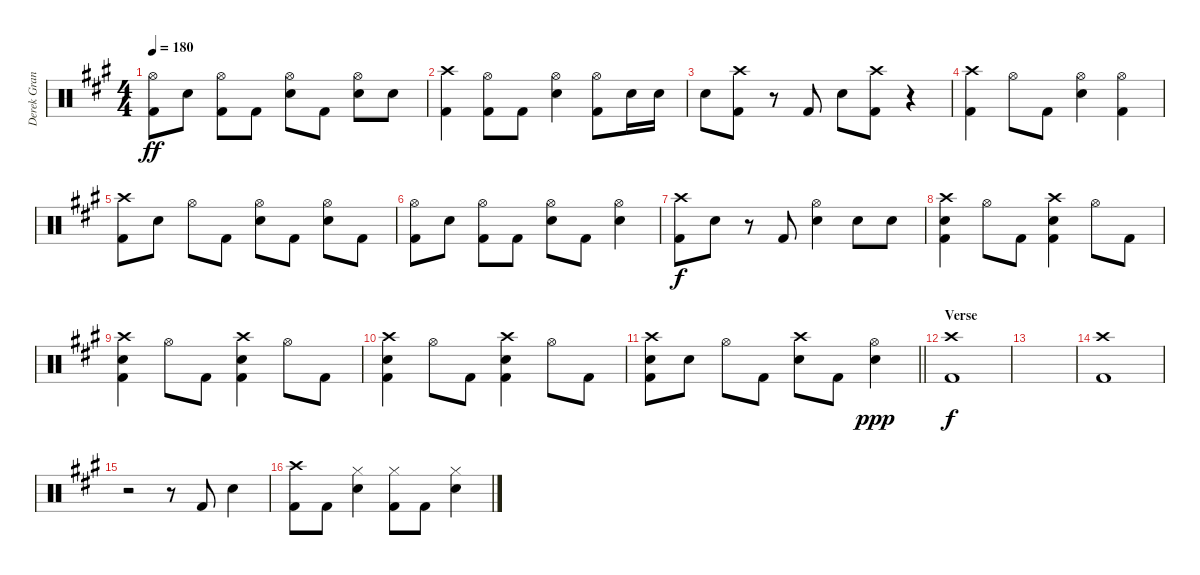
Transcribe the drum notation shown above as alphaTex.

\track ("Derek Grant - Drums" "Derek Gran") {instrument percussion}
\staff {score}
\articulation defaults
\ts (4 4)
\tempo 180
\clef neutral
\ks a
("Kick (hit) 2" "Hi-Hat (open)").8{dy ff} "Snare (hit) 2".8 ("Kick (hit) 2" "Hi-Hat (open)").8 "Kick (hit) 2".8 ("Snare (hit) 2" "Hi-Hat (open)").8 "Kick (hit) 2".8 ("Snare (hit) 2" "Hi-Hat (open)").8 "Snare (hit) 2".8 |
("Kick (hit) 2" "Crash high (hit)").4 ("Kick (hit) 2" "Hi-Hat (open)").8 "Kick (hit) 2".8 ("Snare (hit) 2" "Hi-Hat (open)").4 ("Kick (hit) 2" "Hi-Hat (open)").8 "Snare (hit) 2".16 "Snare (hit) 2".16 |
"Snare (hit) 2".8 ("Kick (hit) 2" "Crash high (hit)").8 r.8 "Kick (hit) 2".8 "Snare (hit) 2".8 ("Kick (hit) 2" "Crash high (hit)").8 r.4 |
("Kick (hit) 2" "Crash high (hit)").4 "Hi-Hat (open)".8 "Kick (hit) 2".8 ("Snare (hit) 2" "Hi-Hat (open)").4 ("Kick (hit) 2" "Hi-Hat (open)").4 |
("Kick (hit) 2" "Crash high (hit)").8 "Snare (hit) 2".8 "Hi-Hat (open)".8 "Kick (hit) 2".8 ("Snare (hit) 2" "Hi-Hat (open)").8 "Kick (hit) 2".8 ("Snare (hit) 2" "Hi-Hat (open)").8 "Kick (hit) 2".8 |
("Kick (hit) 2" "Hi-Hat (open)").8 "Snare (hit) 2".8 ("Kick (hit) 2" "Hi-Hat (open)").8 "Kick (hit) 2".8 ("Snare (hit) 2" "Hi-Hat (open)").8 "Kick (hit) 2".8 ("Snare (hit) 2" "Hi-Hat (open)").4 |
("Crash high (hit)" "Kick (hit) 2").8{dy f} "Snare (hit) 2".8 r.8 "Kick (hit) 2".8 ("Snare (hit) 2" "Hi-Hat (open)").4 "Snare (hit) 2".8 "Snare (hit) 2".8 |
("Crash high (hit)" "Kick (hit) 2" "Snare (hit) 2").4 "Hi-Hat (open)".8 "Kick (hit) 2".8 ("Crash high (hit)" "Kick (hit) 2" "Snare (hit) 2").4 "Hi-Hat (open)".8 "Kick (hit) 2".8 |
("Crash high (hit)" "Kick (hit) 2" "Snare (hit) 2").4 "Hi-Hat (open)".8 "Kick (hit) 2".8 ("Crash high (hit)" "Kick (hit) 2" "Snare (hit) 2").4 "Hi-Hat (open)".8 "Kick (hit) 2".8 |
("Crash high (hit)" "Kick (hit) 2" "Snare (hit) 2").4 "Hi-Hat (open)".8 "Kick (hit) 2".8 ("Crash high (hit)" "Kick (hit) 2" "Snare (hit) 2").4 "Hi-Hat (open)".8 "Kick (hit) 2".8 |
\barLineRight lightlight
("Crash high (hit)" "Kick (hit) 2" "Snare (hit) 2").8 "Snare (hit) 2".8 "Hi-Hat (open)".8 "Kick (hit) 2".8 ("Crash high (hit)" "Snare (hit) 2").8 "Kick (hit) 2".8 ("Snare (hit) 2" "Hi-Hat (open)").4{dy ppp} |
\section ("" "Verse")
("Crash high (hit)" "Kick (hit) 2").1{dy f} |
|
("Crash high (hit)" "Kick (hit) 2").1 |
r.2 r.8 "Kick (hit) 2".8 "Snare (hit) 2".4 |
("Crash high (hit)" "Kick (hit) 2").8 "Kick (hit) 2".8 ("Snare (hit) 2" "Hi-Hat (closed)").4 ("Kick (hit) 2" "Hi-Hat (closed)").8 "Kick (hit) 2".8 ("Snare (hit) 2" "Hi-Hat (closed)").4
